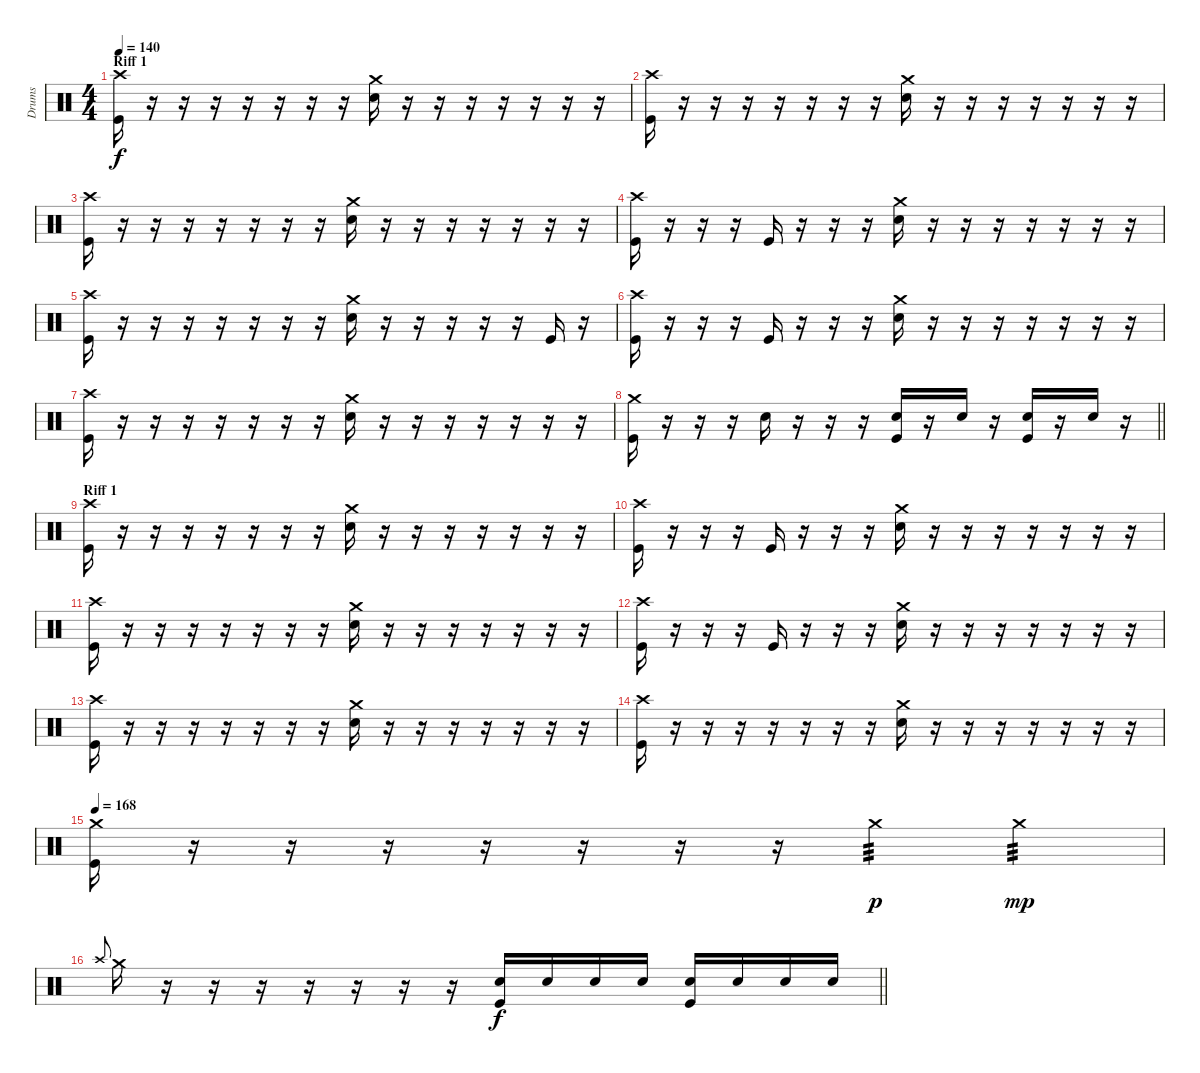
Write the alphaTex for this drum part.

\track ("Drums" "Drums") {instrument percussion}
\staff {score}
\articulation defaults
\ts (4 4)
\section ("" "Riff 1")
\tempo 140
\clef neutral
\ks c
("Crash high (hit)" "Kick (hit)").16{dy f} r.16 r.16 r.16 r.16 r.16 r.16 r.16 ("Crash medium (hit)" "Electric Snare (hit)").16 r.16 r.16 r.16 r.16 r.16 r.16 r.16 |
("Crash high (hit)" "Kick (hit)").16 r.16 r.16 r.16 r.16 r.16 r.16 r.16 ("Crash medium (hit)" "Electric Snare (hit)").16 r.16 r.16 r.16 r.16 r.16 r.16 r.16 |
("Crash high (hit)" "Kick (hit)").16 r.16 r.16 r.16 r.16 r.16 r.16 r.16 ("Crash medium (hit)" "Electric Snare (hit)").16 r.16 r.16 r.16 r.16 r.16 r.16 r.16 |
("Crash high (hit)" "Kick (hit)").16 r.16 r.16 r.16 "Kick (hit)".16 r.16 r.16 r.16 ("Crash medium (hit)" "Electric Snare (hit)").16 r.16 r.16 r.16 r.16 r.16 r.16 r.16 |
("Crash high (hit)" "Kick (hit)").16 r.16 r.16 r.16 r.16 r.16 r.16 r.16 ("Crash medium (hit)" "Electric Snare (hit)").16 r.16 r.16 r.16 r.16 r.16 "Kick (hit)".16 r.16 |
("Crash high (hit)" "Kick (hit)").16 r.16 r.16 r.16 "Kick (hit)".16 r.16 r.16 r.16 ("Crash medium (hit)" "Electric Snare (hit)").16 r.16 r.16 r.16 r.16 r.16 r.16 r.16 |
("Crash high (hit)" "Kick (hit)").16 r.16 r.16 r.16 r.16 r.16 r.16 r.16 ("Crash medium (hit)" "Electric Snare (hit)").16 r.16 r.16 r.16 r.16 r.16 r.16 r.16 |
\barLineRight lightlight
("Crash medium (hit)" "Kick (hit)").16 r.16 r.16 r.16 "Electric Snare (hit)".16 r.16 r.16 r.16 ("Electric Snare (hit)" "Kick (hit)").16 r.16 "Electric Snare (hit)".16 r.16 ("Electric Snare (hit)" "Kick (hit)").16 r.16 "Electric Snare (hit)".16 r.16 |
\section ("" "Riff 1")
("Crash high (hit)" "Kick (hit)").16 r.16 r.16 r.16 r.16 r.16 r.16 r.16 ("Crash medium (hit)" "Electric Snare (hit)").16 r.16 r.16 r.16 r.16 r.16 r.16 r.16 |
("Crash high (hit)" "Kick (hit)").16 r.16 r.16 r.16 "Kick (hit)".16 r.16 r.16 r.16 ("Crash medium (hit)" "Electric Snare (hit)").16 r.16 r.16 r.16 r.16 r.16 r.16 r.16 |
("Crash high (hit)" "Kick (hit)").16 r.16 r.16 r.16 r.16 r.16 r.16 r.16 ("Crash medium (hit)" "Electric Snare (hit)").16 r.16 r.16 r.16 r.16 r.16 r.16 r.16 |
("Crash high (hit)" "Kick (hit)").16 r.16 r.16 r.16 "Kick (hit)".16 r.16 r.16 r.16 ("Crash medium (hit)" "Electric Snare (hit)").16 r.16 r.16 r.16 r.16 r.16 r.16 r.16 |
("Crash high (hit)" "Kick (hit)").16 r.16 r.16 r.16 r.16 r.16 r.16 r.16 ("Crash medium (hit)" "Electric Snare (hit)").16 r.16 r.16 r.16 r.16 r.16 r.16 r.16 |
("Crash high (hit)" "Kick (hit)").16 r.16 r.16 r.16 r.16 r.16 r.16 r.16 ("Crash medium (hit)" "Electric Snare (hit)").16 r.16 r.16 r.16 r.16 r.16 r.16 r.16 |
\tempo 168
("Crash medium (hit)" "Kick (hit)").16 r.16 r.16 r.16 r.16 r.16 r.16 r.16 "Crash medium (hit)".4{tp 3 dy p} "Crash medium (hit)".4{tp 3 dy mp} |
\barLineRight lightlight "Crash high (hit)".8{gr onbeat} "Crash medium (hit)".16
r.16 r.16 r.16 r.16 r.16 r.16 r.16 ("Electric Snare (hit)" "Kick (hit)").16{dy f} "Electric Snare (hit)".16 "Electric Snare (hit)".16 "Electric Snare (hit)".16 ("Electric Snare (hit)" "Kick (hit)").16 "Electric Snare (hit)".16 "Electric Snare (hit)".16 "Electric Snare (hit)".16
